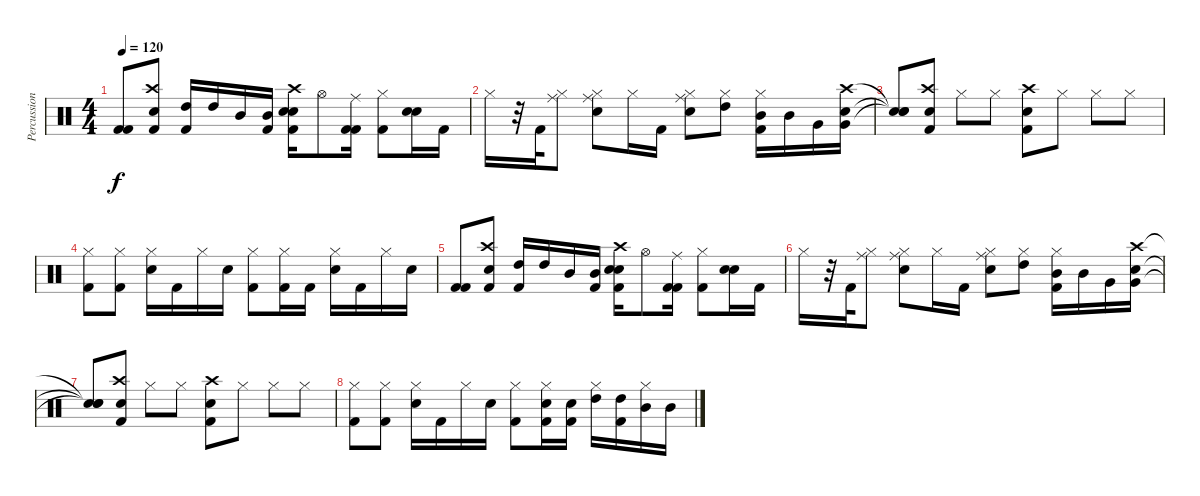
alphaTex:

\track ("Percussion" "Percussion") {instrument percussion}
\staff {score}
\articulation defaults
\ts (4 4)
\tempo 120
\clef neutral
\ks c
("Kick (hit) 2" "Kick (hit) 2").8{dy f} ("Crash high (hit)" "Snare (hit) 2" "Kick (hit) 2").8 ("High Tom (hit)" "Kick (hit) 2").16 "High Tom (hit)".16 "Mid Tom (hit)".16 ("Mid Tom (hit)" "Kick (hit) 2").16 ("Crash high (hit)" "Snare (hit) 2" "Snare (hit) 2" "Kick (hit) 2").16 "Hi-Hat (open)".8 ("Ride (middle)" "Kick (hit) 2" "Kick (hit) 2").16 ("Hi-Hat (closed)" "Kick (hit) 2").8 ("Snare (hit) 2" "Snare (hit) 2").16 "Kick (hit) 2".16 |
"Hi-Hat (closed)".16 r.32 "Kick (hit) 2".32 ("Hi-Hat (closed)" "Ride (middle)").8 ("Hi-Hat (closed)" "Ride (middle)" "Snare (hit) 2").8 "Hi-Hat (closed)".16 "Kick (hit) 2".16 ("Hi-Hat (closed)" "Ride (middle)" "Snare (hit) 2").8 ("Hi-Hat (closed)" "High Tom (hit)").8 ("Hi-Hat (closed)" "Mid Tom (hit)" "Kick (hit) 2").16 "Mid Tom (hit)".16 "Very Low Tom (hit)".16 ("Crash high (hit)" "Snare (hit) 2" "Very Low Tom (hit)").16 |
("Snare (hit)"{t} "Snare (hit)"{t} "Snare (hit)"{t}).8 ("Crash high (hit)" "Snare (hit) 2" "Kick (hit) 2").8 "Hi-Hat (closed)".8 "Hi-Hat (closed)".8 ("Crash high (hit)" "Snare (hit) 2" "Kick (hit) 2").8 "Hi-Hat (closed)".8 "Hi-Hat (closed)".8 "Hi-Hat (closed)".8 |
("Hi-Hat (closed)" "Kick (hit) 2").8 ("Hi-Hat (closed)" "Kick (hit) 2").8 ("Hi-Hat (closed)" "Snare (hit) 2").16 "Kick (hit) 2".16 "Hi-Hat (closed)".16 "Snare (hit) 2".16 ("Hi-Hat (closed)" "Kick (hit) 2").8 ("Hi-Hat (closed)" "Kick (hit) 2").16 "Kick (hit) 2".16 ("Hi-Hat (closed)" "Snare (hit) 2").16 "Kick (hit) 2".16 "Hi-Hat (closed)".16 "Snare (hit) 2".16 |
("Kick (hit) 2" "Kick (hit) 2").8 ("Crash high (hit)" "Snare (hit) 2" "Kick (hit) 2").8 ("High Tom (hit)" "Kick (hit) 2").16 "High Tom (hit)".16 "Mid Tom (hit)".16 ("Mid Tom (hit)" "Kick (hit) 2").16 ("Crash high (hit)" "Snare (hit) 2" "Snare (hit) 2" "Kick (hit) 2").16 "Hi-Hat (open)".8 ("Ride (middle)" "Kick (hit) 2" "Kick (hit) 2").16 ("Hi-Hat (closed)" "Kick (hit) 2").8 ("Snare (hit) 2" "Snare (hit) 2").16 "Kick (hit) 2".16 |
"Hi-Hat (closed)".16 r.32 "Kick (hit) 2".32 ("Hi-Hat (closed)" "Ride (middle)").8 ("Hi-Hat (closed)" "Ride (middle)" "Snare (hit) 2").8 "Hi-Hat (closed)".16 "Kick (hit) 2".16 ("Hi-Hat (closed)" "Ride (middle)" "Snare (hit) 2").8 ("Hi-Hat (closed)" "High Tom (hit)").8 ("Hi-Hat (closed)" "Mid Tom (hit)" "Kick (hit) 2").16 "Mid Tom (hit)".16 "Very Low Tom (hit)".16 ("Crash high (hit)" "Snare (hit) 2" "Very Low Tom (hit)").16 |
("Snare (hit)"{t} "Snare (hit)"{t} "Snare (hit)"{t}).8 ("Crash high (hit)" "Snare (hit) 2" "Kick (hit) 2").8 "Hi-Hat (closed)".8 "Hi-Hat (closed)".8 ("Crash high (hit)" "Snare (hit) 2" "Kick (hit) 2").8 "Hi-Hat (closed)".8 "Hi-Hat (closed)".8 "Hi-Hat (closed)".8 |
("Hi-Hat (closed)" "Kick (hit) 2").8 ("Hi-Hat (closed)" "Kick (hit) 2").8 ("Hi-Hat (closed)" "Snare (hit) 2").16 "Kick (hit) 2".16 "Hi-Hat (closed)".16 "Snare (hit) 2".16 ("Hi-Hat (closed)" "Kick (hit) 2").8 ("Hi-Hat (closed)" "Snare (hit) 2" "Kick (hit) 2").16 ("Snare (hit) 2" "Kick (hit) 2").16 ("Hi-Hat (closed)" "High Tom (hit)").16 ("High Tom (hit)" "Kick (hit) 2").16 ("Hi-Hat (closed)" "Mid Tom (hit)").16 "Mid Tom (hit)".16
